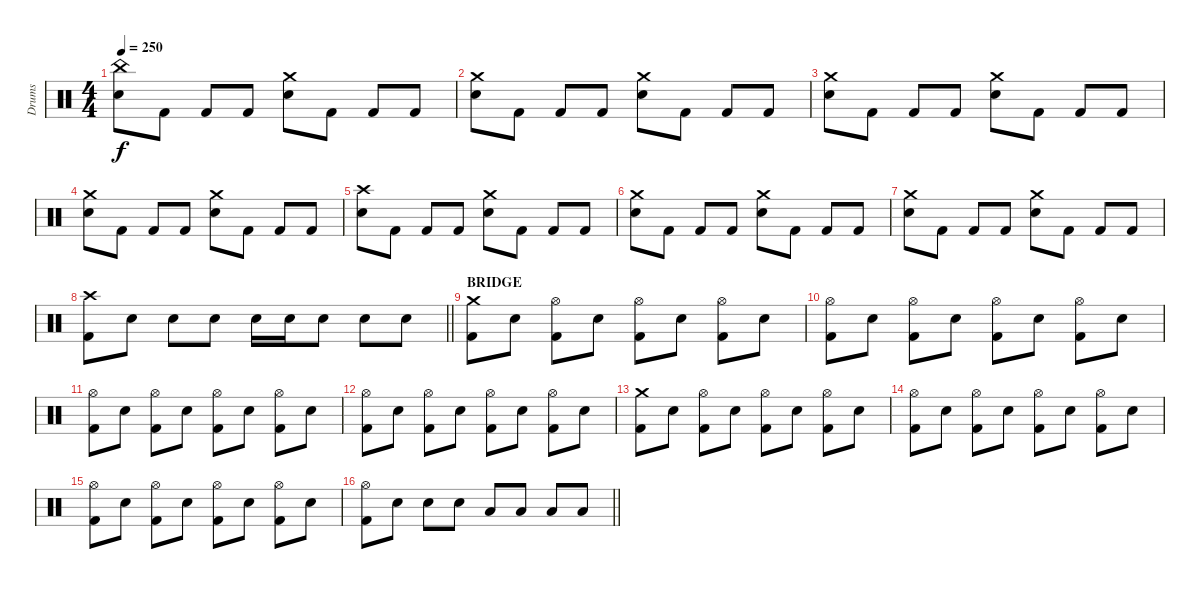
\track ("Drums" "Drums") {instrument percussion}
\staff {score}
\articulation defaults
\ts (4 4)
\tempo 250
\clef neutral
\ks c
("China (hit)" "Electric Snare (hit)").8{dy f} "Kick (hit) 2".8 "Kick (hit) 2".8 "Kick (hit) 2".8 ("Crash medium (hit)" "Electric Snare (hit)").8 "Kick (hit) 2".8 "Kick (hit) 2".8 "Kick (hit) 2".8 |
("Crash medium (hit)" "Electric Snare (hit)").8 "Kick (hit) 2".8 "Kick (hit) 2".8 "Kick (hit) 2".8 ("Crash medium (hit)" "Electric Snare (hit)").8 "Kick (hit) 2".8 "Kick (hit) 2".8 "Kick (hit) 2".8 |
("Crash medium (hit)" "Electric Snare (hit)").8 "Kick (hit) 2".8 "Kick (hit) 2".8 "Kick (hit) 2".8 ("Crash medium (hit)" "Electric Snare (hit)").8 "Kick (hit) 2".8 "Kick (hit) 2".8 "Kick (hit) 2".8 |
("Crash medium (hit)" "Electric Snare (hit)").8 "Kick (hit) 2".8 "Kick (hit) 2".8 "Kick (hit) 2".8 ("Crash medium (hit)" "Electric Snare (hit)").8 "Kick (hit) 2".8 "Kick (hit) 2".8 "Kick (hit) 2".8 |
("Crash high (hit)" "Electric Snare (hit)").8 "Kick (hit) 2".8 "Kick (hit) 2".8 "Kick (hit) 2".8 ("Crash medium (hit)" "Electric Snare (hit)").8 "Kick (hit) 2".8 "Kick (hit) 2".8 "Kick (hit) 2".8 |
("Crash medium (hit)" "Electric Snare (hit)").8 "Kick (hit) 2".8 "Kick (hit) 2".8 "Kick (hit) 2".8 ("Crash medium (hit)" "Electric Snare (hit)").8 "Kick (hit) 2".8 "Kick (hit) 2".8 "Kick (hit) 2".8 |
("Crash medium (hit)" "Electric Snare (hit)").8 "Kick (hit) 2".8 "Kick (hit) 2".8 "Kick (hit) 2".8 ("Crash medium (hit)" "Electric Snare (hit)").8 "Kick (hit) 2".8 "Kick (hit) 2".8 "Kick (hit) 2".8 |
\barLineRight lightlight
("Crash high (hit)" "Kick (hit) 2").8 "Electric Snare (hit)".8 "Electric Snare (hit)".8 "Electric Snare (hit)".8 "Electric Snare (hit)".16 "Electric Snare (hit)".16 "Electric Snare (hit)".8 "Electric Snare (hit)".8 "Electric Snare (hit)".8 |
\section ("" "BRIDGE")
("Crash medium (hit)" "Kick (hit) 2").8 "Electric Snare (hit)".8 ("Hi-Hat (open)" "Kick (hit) 2").8 "Electric Snare (hit)".8 ("Hi-Hat (open)" "Kick (hit) 2").8 "Electric Snare (hit)".8 ("Hi-Hat (open)" "Kick (hit) 2").8 "Electric Snare (hit)".8 |
("Hi-Hat (open)" "Kick (hit) 2").8 "Electric Snare (hit)".8 ("Hi-Hat (open)" "Kick (hit) 2").8 "Electric Snare (hit)".8 ("Hi-Hat (open)" "Kick (hit) 2").8 "Electric Snare (hit)".8 ("Hi-Hat (open)" "Kick (hit) 2").8 "Electric Snare (hit)".8 |
("Hi-Hat (open)" "Kick (hit) 2").8 "Electric Snare (hit)".8 ("Hi-Hat (open)" "Kick (hit) 2").8 "Electric Snare (hit)".8 ("Hi-Hat (open)" "Kick (hit) 2").8 "Electric Snare (hit)".8 ("Hi-Hat (open)" "Kick (hit) 2").8 "Electric Snare (hit)".8 |
("Hi-Hat (open)" "Kick (hit) 2").8 "Electric Snare (hit)".8 ("Hi-Hat (open)" "Kick (hit) 2").8 "Electric Snare (hit)".8 ("Hi-Hat (open)" "Kick (hit) 2").8 "Electric Snare (hit)".8 ("Hi-Hat (open)" "Kick (hit) 2").8 "Electric Snare (hit)".8 |
("Crash medium (hit)" "Kick (hit) 2").8 "Electric Snare (hit)".8 ("Hi-Hat (open)" "Kick (hit) 2").8 "Electric Snare (hit)".8 ("Hi-Hat (open)" "Kick (hit) 2").8 "Electric Snare (hit)".8 ("Hi-Hat (open)" "Kick (hit) 2").8 "Electric Snare (hit)".8 |
("Hi-Hat (open)" "Kick (hit) 2").8 "Electric Snare (hit)".8 ("Hi-Hat (open)" "Kick (hit) 2").8 "Electric Snare (hit)".8 ("Hi-Hat (open)" "Kick (hit) 2").8 "Electric Snare (hit)".8 ("Hi-Hat (open)" "Kick (hit) 2").8 "Electric Snare (hit)".8 |
("Hi-Hat (open)" "Kick (hit) 2").8 "Electric Snare (hit)".8 ("Hi-Hat (open)" "Kick (hit) 2").8 "Electric Snare (hit)".8 ("Hi-Hat (open)" "Kick (hit) 2").8 "Electric Snare (hit)".8 ("Hi-Hat (open)" "Kick (hit) 2").8 "Electric Snare (hit)".8 |
\barLineRight lightlight
("Hi-Hat (open)" "Kick (hit) 2").8 "Electric Snare (hit)".8 "Electric Snare (hit)".8 "Electric Snare (hit)".8 "Low Tom (hit)".8 "Low Tom (hit)".8 "Low Floor Tom (hit)".8 "Low Floor Tom (hit)".8
